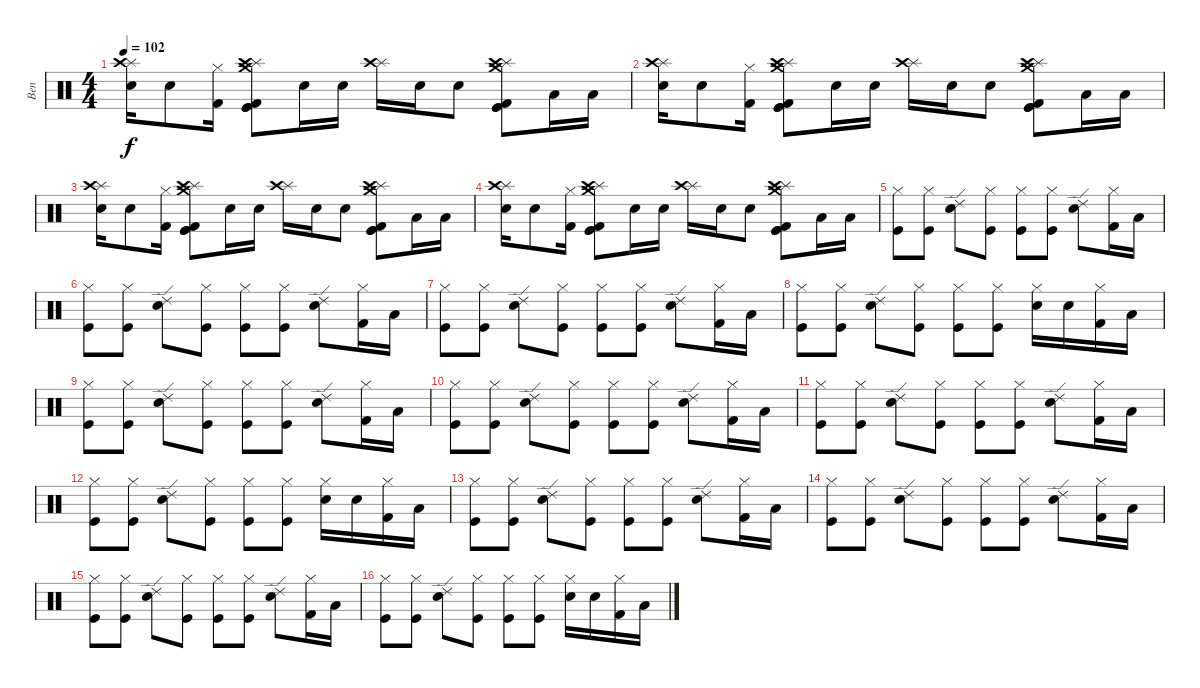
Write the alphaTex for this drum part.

\track ("Ben" "Ben") {instrument percussion}
\staff {score}
\articulation defaults
\ts (4 4)
\tempo 102
\clef neutral
\ks c
("Splash (hit)" "Crash high (hit)" "Electric Snare (hit)").16{dy f} "Electric Snare (hit)".8 ("Hi-Hat (closed)" "Kick (hit) 2").16 ("Splash (hit)" "Crash high (hit)" "Crash medium (hit)" "Kick (hit) 2" "Kick (hit)" "Kick (hit)").8 "Electric Snare (hit)".16 "Electric Snare (hit)".16 ("Splash (hit)" "Crash high (hit)").16 "Electric Snare (hit)".16 "Electric Snare (hit)".8 ("Splash (hit)" "Crash high (hit)" "Crash medium (hit)" "Kick (hit) 2" "Kick (hit)" "Kick (hit)").8 "Low Floor Tom (hit)".16 "Low Floor Tom (hit)".16 |
("Splash (hit)" "Crash high (hit)" "Electric Snare (hit)").16 "Electric Snare (hit)".8 ("Hi-Hat (closed)" "Kick (hit) 2").16 ("Splash (hit)" "Crash high (hit)" "Crash medium (hit)" "Kick (hit) 2" "Kick (hit)" "Kick (hit)").8 "Electric Snare (hit)".16 "Electric Snare (hit)".16 ("Splash (hit)" "Crash high (hit)").16 "Electric Snare (hit)".16 "Electric Snare (hit)".8 ("Splash (hit)" "Crash high (hit)" "Crash medium (hit)" "Kick (hit) 2" "Kick (hit)" "Kick (hit)").8 "Low Floor Tom (hit)".16 "Low Floor Tom (hit)".16 |
("Splash (hit)" "Crash high (hit)" "Electric Snare (hit)").16 "Electric Snare (hit)".8 ("Hi-Hat (closed)" "Kick (hit) 2").16 ("Splash (hit)" "Crash high (hit)" "Crash medium (hit)" "Kick (hit) 2" "Kick (hit)" "Kick (hit)").8 "Electric Snare (hit)".16 "Electric Snare (hit)".16 ("Splash (hit)" "Crash high (hit)").16 "Electric Snare (hit)".16 "Electric Snare (hit)".8 ("Splash (hit)" "Crash high (hit)" "Crash medium (hit)" "Kick (hit) 2" "Kick (hit)" "Kick (hit)").8 "Low Floor Tom (hit)".16 "Low Floor Tom (hit)".16 |
("Splash (hit)" "Crash high (hit)" "Electric Snare (hit)").16 "Electric Snare (hit)".8 ("Hi-Hat (closed)" "Kick (hit) 2").16 ("Splash (hit)" "Crash high (hit)" "Crash medium (hit)" "Kick (hit) 2" "Kick (hit)" "Kick (hit)").8 "Electric Snare (hit)".16 "Electric Snare (hit)".16 ("Splash (hit)" "Crash high (hit)").16 "Electric Snare (hit)".16 "Electric Snare (hit)".8 ("Splash (hit)" "Crash high (hit)" "Crash medium (hit)" "Kick (hit) 2" "Kick (hit)" "Kick (hit)").8 "Low Floor Tom (hit)".16 "Low Floor Tom (hit)".16 |
("Hi-Hat (closed)" "Kick (hit)").8 ("Hi-Hat (closed)" "Kick (hit)").8 ("Ride (edge) 2" "Electric Snare (hit)").8 ("Hi-Hat (closed)" "Kick (hit)").8 ("Hi-Hat (closed)" "Kick (hit)").8 ("Hi-Hat (closed)" "Kick (hit)").8 ("Ride (edge) 2" "Electric Snare (hit)").8 ("Hi-Hat (closed)" "Kick (hit) 2").16 "Low Floor Tom (hit)".16 |
("Hi-Hat (closed)" "Kick (hit)").8 ("Hi-Hat (closed)" "Kick (hit)").8 ("Ride (edge) 2" "Electric Snare (hit)").8 ("Hi-Hat (closed)" "Kick (hit)").8 ("Hi-Hat (closed)" "Kick (hit)").8 ("Hi-Hat (closed)" "Kick (hit)").8 ("Ride (edge) 2" "Electric Snare (hit)").8 ("Hi-Hat (closed)" "Kick (hit) 2").16 "Low Floor Tom (hit)".16 |
("Hi-Hat (closed)" "Kick (hit)").8 ("Hi-Hat (closed)" "Kick (hit)").8 ("Ride (edge) 2" "Electric Snare (hit)").8 ("Hi-Hat (closed)" "Kick (hit)").8 ("Hi-Hat (closed)" "Kick (hit)").8 ("Hi-Hat (closed)" "Kick (hit)").8 ("Ride (edge) 2" "Electric Snare (hit)").8 ("Hi-Hat (closed)" "Kick (hit) 2").16 "Low Floor Tom (hit)".16 |
("Hi-Hat (closed)" "Kick (hit)").8 ("Hi-Hat (closed)" "Kick (hit)").8 ("Ride (edge) 2" "Electric Snare (hit)").8 ("Hi-Hat (closed)" "Kick (hit)").8 ("Hi-Hat (closed)" "Kick (hit)").8 ("Hi-Hat (closed)" "Kick (hit)").8 ("Hi-Hat (closed)" "Electric Snare (hit)").16 "Electric Snare (hit)".16 ("Hi-Hat (closed)" "Kick (hit) 2").16 "Low Floor Tom (hit)".16 |
("Hi-Hat (closed)" "Kick (hit)").8 ("Hi-Hat (closed)" "Kick (hit)").8 ("Ride (edge) 2" "Electric Snare (hit)").8 ("Hi-Hat (closed)" "Kick (hit)").8 ("Hi-Hat (closed)" "Kick (hit)").8 ("Hi-Hat (closed)" "Kick (hit)").8 ("Ride (edge) 2" "Electric Snare (hit)").8 ("Hi-Hat (closed)" "Kick (hit) 2").16 "Low Floor Tom (hit)".16 |
("Hi-Hat (closed)" "Kick (hit)").8 ("Hi-Hat (closed)" "Kick (hit)").8 ("Ride (edge) 2" "Electric Snare (hit)").8 ("Hi-Hat (closed)" "Kick (hit)").8 ("Hi-Hat (closed)" "Kick (hit)").8 ("Hi-Hat (closed)" "Kick (hit)").8 ("Ride (edge) 2" "Electric Snare (hit)").8 ("Hi-Hat (closed)" "Kick (hit) 2").16 "Low Floor Tom (hit)".16 |
("Hi-Hat (closed)" "Kick (hit)").8 ("Hi-Hat (closed)" "Kick (hit)").8 ("Ride (edge) 2" "Electric Snare (hit)").8 ("Hi-Hat (closed)" "Kick (hit)").8 ("Hi-Hat (closed)" "Kick (hit)").8 ("Hi-Hat (closed)" "Kick (hit)").8 ("Ride (edge) 2" "Electric Snare (hit)").8 ("Hi-Hat (closed)" "Kick (hit) 2").16 "Low Floor Tom (hit)".16 |
("Hi-Hat (closed)" "Kick (hit)").8 ("Hi-Hat (closed)" "Kick (hit)").8 ("Ride (edge) 2" "Electric Snare (hit)").8 ("Hi-Hat (closed)" "Kick (hit)").8 ("Hi-Hat (closed)" "Kick (hit)").8 ("Hi-Hat (closed)" "Kick (hit)").8 ("Hi-Hat (closed)" "Electric Snare (hit)").16 "Electric Snare (hit)".16 ("Hi-Hat (closed)" "Kick (hit) 2").16 "Low Floor Tom (hit)".16 |
("Hi-Hat (closed)" "Kick (hit)").8 ("Hi-Hat (closed)" "Kick (hit)").8 ("Ride (edge) 2" "Electric Snare (hit)").8 ("Hi-Hat (closed)" "Kick (hit)").8 ("Hi-Hat (closed)" "Kick (hit)").8 ("Hi-Hat (closed)" "Kick (hit)").8 ("Ride (edge) 2" "Electric Snare (hit)").8 ("Hi-Hat (closed)" "Kick (hit) 2").16 "Low Floor Tom (hit)".16 |
("Hi-Hat (closed)" "Kick (hit)").8 ("Hi-Hat (closed)" "Kick (hit)").8 ("Ride (edge) 2" "Electric Snare (hit)").8 ("Hi-Hat (closed)" "Kick (hit)").8 ("Hi-Hat (closed)" "Kick (hit)").8 ("Hi-Hat (closed)" "Kick (hit)").8 ("Ride (edge) 2" "Electric Snare (hit)").8 ("Hi-Hat (closed)" "Kick (hit) 2").16 "Low Floor Tom (hit)".16 |
("Hi-Hat (closed)" "Kick (hit)").8 ("Hi-Hat (closed)" "Kick (hit)").8 ("Ride (edge) 2" "Electric Snare (hit)").8 ("Hi-Hat (closed)" "Kick (hit)").8 ("Hi-Hat (closed)" "Kick (hit)").8 ("Hi-Hat (closed)" "Kick (hit)").8 ("Ride (edge) 2" "Electric Snare (hit)").8 ("Hi-Hat (closed)" "Kick (hit) 2").16 "Low Floor Tom (hit)".16 |
("Hi-Hat (closed)" "Kick (hit)").8 ("Hi-Hat (closed)" "Kick (hit)").8 ("Ride (edge) 2" "Electric Snare (hit)").8 ("Hi-Hat (closed)" "Kick (hit)").8 ("Hi-Hat (closed)" "Kick (hit)").8 ("Hi-Hat (closed)" "Kick (hit)").8 ("Hi-Hat (closed)" "Electric Snare (hit)").16 "Electric Snare (hit)".16 ("Hi-Hat (closed)" "Kick (hit) 2").16 "Low Floor Tom (hit)".16
